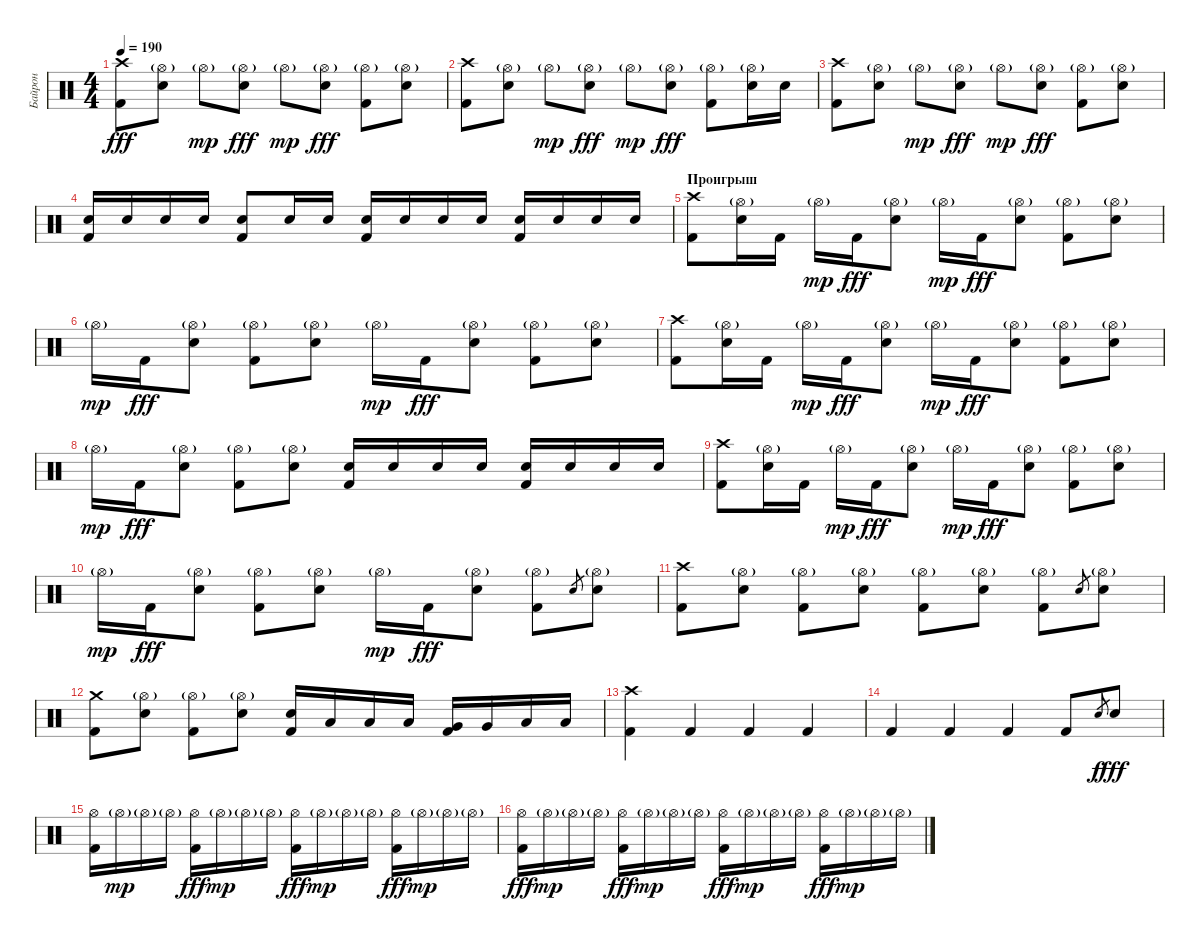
\track ("Байрон" "Байрон") {instrument percussion}
\staff {score}
\articulation defaults
\ts (4 4)
\tempo 190
\clef neutral
\ks c
("Crash high (hit)" "Kick (hit) 2").8{dy fff} ("Hi-Hat (open)"{g} "Electric Snare (hit)").8 "Hi-Hat (open)"{g}.8{dy mp} ("Hi-Hat (open)"{g} "Electric Snare (hit)").8{dy fff} "Hi-Hat (open)"{g}.8{dy mp} ("Hi-Hat (open)"{g} "Electric Snare (hit)").8{dy fff} ("Hi-Hat (open)"{g} "Kick (hit) 2").8 ("Hi-Hat (open)"{g} "Electric Snare (hit)").8 |
("Crash high (hit)" "Kick (hit) 2").8 ("Hi-Hat (open)"{g} "Electric Snare (hit)").8 "Hi-Hat (open)"{g}.8{dy mp} ("Hi-Hat (open)"{g} "Electric Snare (hit)").8{dy fff} "Hi-Hat (open)"{g}.8{dy mp} ("Hi-Hat (open)"{g} "Electric Snare (hit)").8{dy fff} ("Hi-Hat (open)"{g} "Kick (hit) 2").8 ("Hi-Hat (open)"{g} "Electric Snare (hit)").16 "Electric Snare (hit)".16 |
("Crash high (hit)" "Kick (hit) 2").8 ("Hi-Hat (open)"{g} "Electric Snare (hit)").8 "Hi-Hat (open)"{g}.8{dy mp} ("Hi-Hat (open)"{g} "Electric Snare (hit)").8{dy fff} "Hi-Hat (open)"{g}.8{dy mp} ("Hi-Hat (open)"{g} "Electric Snare (hit)").8{dy fff} ("Hi-Hat (open)"{g} "Kick (hit) 2").8 ("Hi-Hat (open)"{g} "Electric Snare (hit)").8 |
("Electric Snare (hit)" "Kick (hit) 2").16 "Electric Snare (hit)".16 "Electric Snare (hit)".16 "Electric Snare (hit)".16 ("Electric Snare (hit)" "Kick (hit) 2").8 "Electric Snare (hit)".16 "Electric Snare (hit)".16 ("Electric Snare (hit)" "Kick (hit) 2").16 "Electric Snare (hit)".16 "Electric Snare (hit)".16 "Electric Snare (hit)".16 ("Electric Snare (hit)" "Kick (hit) 2").16 "Electric Snare (hit)".16 "Electric Snare (hit)".16 "Electric Snare (hit)".16 |
\section ("" "Проигрыш")
("Crash high (hit)" "Kick (hit) 2").8 ("Hi-Hat (open)"{g} "Electric Snare (hit)").16 "Kick (hit) 2".16 "Hi-Hat (open)"{g}.16{dy mp} "Kick (hit) 2".16{dy fff} ("Hi-Hat (open)"{g} "Electric Snare (hit)").8 "Hi-Hat (open)"{g}.16{dy mp} "Kick (hit) 2".16{dy fff} ("Hi-Hat (open)"{g} "Electric Snare (hit)").8 ("Hi-Hat (open)"{g} "Kick (hit) 2").8 ("Hi-Hat (open)"{g} "Electric Snare (hit)").8 |
"Hi-Hat (open)"{g}.16{dy mp} "Kick (hit) 2".16{dy fff} ("Hi-Hat (open)"{g} "Electric Snare (hit)").8 ("Hi-Hat (open)"{g} "Kick (hit) 2").8 ("Hi-Hat (open)"{g} "Electric Snare (hit)").8 "Hi-Hat (open)"{g}.16{dy mp} "Kick (hit) 2".16{dy fff} ("Hi-Hat (open)"{g} "Electric Snare (hit)").8 ("Hi-Hat (open)"{g} "Kick (hit) 2").8 ("Hi-Hat (open)"{g} "Electric Snare (hit)").8 |
("Crash high (hit)" "Kick (hit) 2").8 ("Hi-Hat (open)"{g} "Electric Snare (hit)").16 "Kick (hit) 2".16 "Hi-Hat (open)"{g}.16{dy mp} "Kick (hit) 2".16{dy fff} ("Hi-Hat (open)"{g} "Electric Snare (hit)").8 "Hi-Hat (open)"{g}.16{dy mp} "Kick (hit) 2".16{dy fff} ("Hi-Hat (open)"{g} "Electric Snare (hit)").8 ("Hi-Hat (open)"{g} "Kick (hit) 2").8 ("Hi-Hat (open)"{g} "Electric Snare (hit)").8 |
"Hi-Hat (open)"{g}.16{dy mp} "Kick (hit) 2".16{dy fff} ("Hi-Hat (open)"{g} "Electric Snare (hit)").8 ("Hi-Hat (open)"{g} "Kick (hit) 2").8 ("Hi-Hat (open)"{g} "Electric Snare (hit)").8 ("Electric Snare (hit)" "Kick (hit) 2").16 "Electric Snare (hit)".16 "Electric Snare (hit)".16 "Electric Snare (hit)".16 ("Electric Snare (hit)" "Kick (hit) 2").16 "Electric Snare (hit)".16 "Electric Snare (hit)".16 "Electric Snare (hit)".16 |
("Crash high (hit)" "Kick (hit) 2").8 ("Hi-Hat (open)"{g} "Electric Snare (hit)").16 "Kick (hit) 2".16 "Hi-Hat (open)"{g}.16{dy mp} "Kick (hit) 2".16{dy fff} ("Hi-Hat (open)"{g} "Electric Snare (hit)").8 "Hi-Hat (open)"{g}.16{dy mp} "Kick (hit) 2".16{dy fff} ("Hi-Hat (open)"{g} "Electric Snare (hit)").8 ("Hi-Hat (open)"{g} "Kick (hit) 2").8 ("Hi-Hat (open)"{g} "Electric Snare (hit)").8 |
"Hi-Hat (open)"{g}.16{dy mp} "Kick (hit) 2".16{dy fff} ("Hi-Hat (open)"{g} "Electric Snare (hit)").8 ("Hi-Hat (open)"{g} "Kick (hit) 2").8 ("Hi-Hat (open)"{g} "Electric Snare (hit)").8 "Hi-Hat (open)"{g}.16{dy mp} "Kick (hit) 2".16{dy fff} ("Hi-Hat (open)"{g} "Electric Snare (hit)").8 ("Hi-Hat (open)"{g} "Kick (hit) 2").8 "Electric Snare (hit)".8{gr} ("Hi-Hat (open)"{g} "Electric Snare (hit)").8 |
("Crash high (hit)" "Kick (hit) 2").8 ("Hi-Hat (open)"{g} "Electric Snare (hit)").8 ("Hi-Hat (open)"{g} "Kick (hit) 2").8 ("Hi-Hat (open)"{g} "Electric Snare (hit)").8 ("Hi-Hat (open)"{g} "Kick (hit) 2").8 ("Hi-Hat (open)"{g} "Electric Snare (hit)").8 ("Hi-Hat (open)"{g} "Kick (hit) 2").8 "Electric Snare (hit)".8{gr} ("Hi-Hat (open)"{g} "Electric Snare (hit)").8 |
("Crash medium (hit)" "Kick (hit) 2").8 ("Hi-Hat (open)"{g} "Electric Snare (hit)").8 ("Hi-Hat (open)"{g} "Kick (hit) 2").8 ("Hi-Hat (open)"{g} "Electric Snare (hit)").8 ("Electric Snare (hit)" "Kick (hit) 2").16 "Low Tom (hit)".16 "Low Tom (hit)".16 "Low Tom (hit)".16 ("Very Low Tom (hit)" "Kick (hit) 2").16 "Very Low Tom (hit)".16 "Low Floor Tom (hit)".16 "Low Floor Tom (hit)".16 |
("Crash high (hit)" "Kick (hit) 2").4 "Kick (hit) 2".4 "Kick (hit) 2".4 "Kick (hit) 2".4 |
"Kick (hit) 2".4 "Kick (hit) 2".4 "Kick (hit) 2".4 "Kick (hit) 2".8 "Electric Snare (hit)".8{gr dy f} "Electric Snare (hit)".8{dy fff} |
("Hi-Hat (open)" "Kick (hit) 2").16 "Hi-Hat (open)"{g}.16{dy mp} "Hi-Hat (open)"{g}.16 "Hi-Hat (open)"{g}.16 ("Hi-Hat (open)" "Kick (hit) 2").16{dy fff} "Hi-Hat (open)"{g}.16{dy mp} "Hi-Hat (open)"{g}.16 "Hi-Hat (open)"{g}.16 ("Hi-Hat (open)" "Kick (hit) 2").16{dy fff} "Hi-Hat (open)"{g}.16{dy mp} "Hi-Hat (open)"{g}.16 "Hi-Hat (open)"{g}.16 ("Hi-Hat (open)" "Kick (hit) 2").16{dy fff} "Hi-Hat (open)"{g}.16{dy mp} "Hi-Hat (open)"{g}.16 "Hi-Hat (open)"{g}.16 |
("Hi-Hat (open)" "Kick (hit) 2").16{dy fff} "Hi-Hat (open)"{g}.16{dy mp} "Hi-Hat (open)"{g}.16 "Hi-Hat (open)"{g}.16 ("Hi-Hat (open)" "Kick (hit) 2").16{dy fff} "Hi-Hat (open)"{g}.16{dy mp} "Hi-Hat (open)"{g}.16 "Hi-Hat (open)"{g}.16 ("Hi-Hat (open)" "Kick (hit) 2").16{dy fff} "Hi-Hat (open)"{g}.16{dy mp} "Hi-Hat (open)"{g}.16 "Hi-Hat (open)"{g}.16 ("Hi-Hat (open)" "Kick (hit) 2").16{dy fff} "Hi-Hat (open)"{g}.16{dy mp} "Hi-Hat (open)"{g}.16 "Hi-Hat (open)"{g}.16
